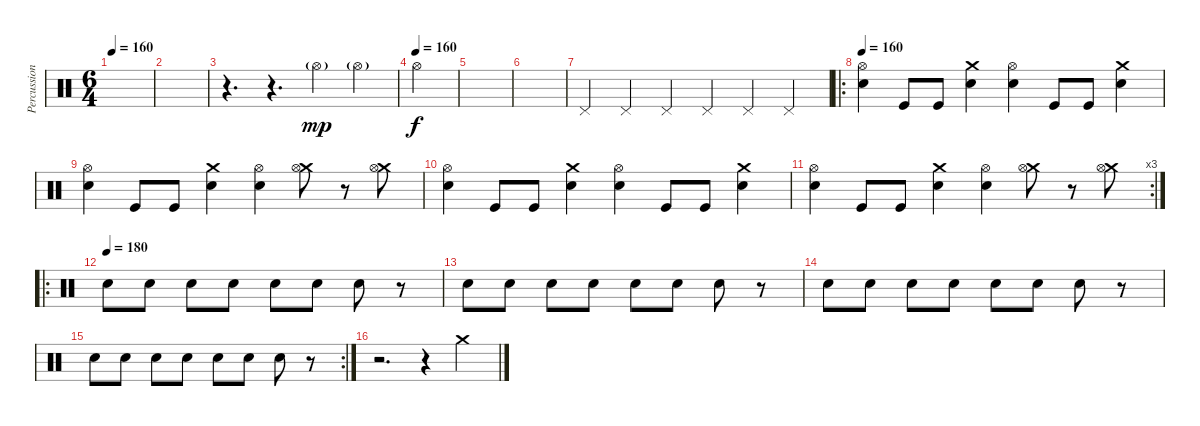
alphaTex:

\track ("Percussion" "Percussion") {instrument percussion}
\staff {score}
\articulation defaults
\ts (6 4)
\tempo 160
\clef neutral
\ks c
|
|
r.4{d} r.4{d} "Hi-Hat (open)"{g}.4{dy mp} "Hi-Hat (open)"{g}.4 |
\tempo (160)
"Hi-Hat (open)".4{dy f} |
|
|
"Pedal Hi-Hat (hit)".4 "Pedal Hi-Hat (hit)".4 "Pedal Hi-Hat (hit)".4 "Pedal Hi-Hat (hit)".4 "Pedal Hi-Hat (hit)".4 "Pedal Hi-Hat (hit)".4 |
\ro
\tempo 160
("Hi-Hat (open)" "Snare (hit) 2").4 "Kick (hit)".8 "Kick (hit)".8 ("Crash medium (hit)" "Snare (hit) 2").4 ("Hi-Hat (open)" "Snare (hit) 2").4 "Kick (hit)".8 "Kick (hit)".8 ("Crash medium (hit)" "Snare (hit) 2").4 |
("Hi-Hat (open)" "Snare (hit) 2").4 "Kick (hit)".8 "Kick (hit)".8 ("Crash medium (hit)" "Snare (hit) 2").4 ("Hi-Hat (open)" "Snare (hit) 2").4 ("Crash medium (hit)" "Hi-Hat (open)").8 r.8 ("Crash medium (hit)" "Hi-Hat (open)").8 |
("Hi-Hat (open)" "Snare (hit) 2").4 "Kick (hit)".8 "Kick (hit)".8 ("Crash medium (hit)" "Snare (hit) 2").4 ("Hi-Hat (open)" "Snare (hit) 2").4 "Kick (hit)".8 "Kick (hit)".8 ("Crash medium (hit)" "Snare (hit) 2").4 |
\rc 3
("Hi-Hat (open)" "Snare (hit) 2").4 "Kick (hit)".8 "Kick (hit)".8 ("Crash medium (hit)" "Snare (hit) 2").4 ("Hi-Hat (open)" "Snare (hit) 2").4 ("Crash medium (hit)" "Hi-Hat (open)").8 r.8 ("Crash medium (hit)" "Hi-Hat (open)").8 |
\ro
\tempo (180)
"Snare (hit) 2".8 "Snare (hit) 2".8 "Snare (hit) 2".8 "Snare (hit) 2".8 "Snare (hit) 2".8 "Snare (hit) 2".8 "Snare (hit) 2".8 r.8 |
"Snare (hit) 2".8 "Snare (hit) 2".8 "Snare (hit) 2".8 "Snare (hit) 2".8 "Snare (hit) 2".8 "Snare (hit) 2".8 "Snare (hit) 2".8 r.8 |
"Snare (hit) 2".8 "Snare (hit) 2".8 "Snare (hit) 2".8 "Snare (hit) 2".8 "Snare (hit) 2".8 "Snare (hit) 2".8 "Snare (hit) 2".8 r.8 |
\rc 2 "Snare (hit) 2".8 "Snare (hit) 2".8 "Snare (hit) 2".8 "Snare (hit) 2".8 "Snare (hit) 2".8 "Snare (hit) 2".8 "Snare (hit) 2".8
r.8 |
r.2{d} r.4 "Crash medium (hit)".4
